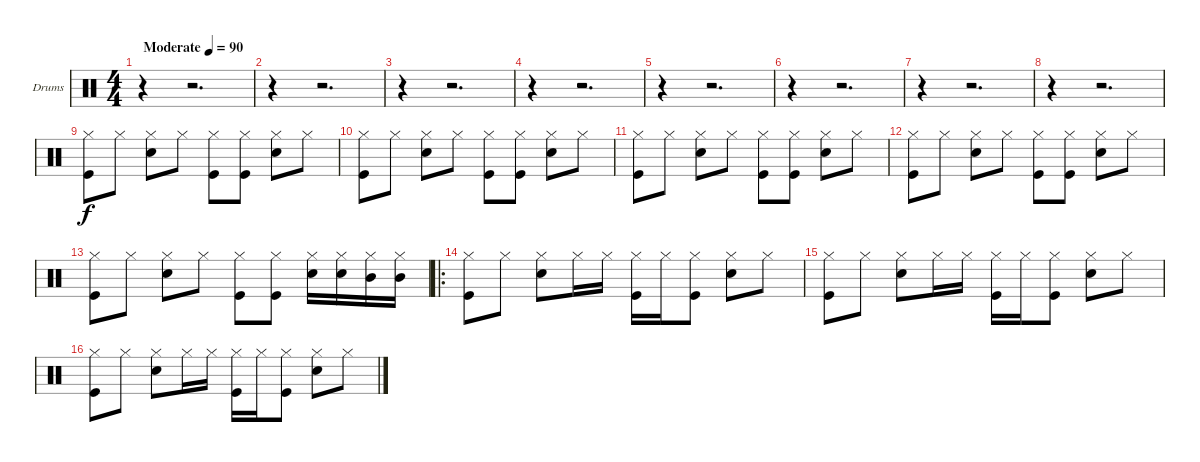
\bracketExtendMode groupsimilarinstruments
\firstSystemTrackNameOrientation horizontal
\otherSystemsTrackNameOrientation horizontal
\track ("Drumkit" "Drums") {instrument percussion}
\staff {score}
\articulation defaults
\ts (4 4)
\beaming (8 2 2 2 2)
\tempo (90 "Moderate")
\clef neutral
\ks c
r.4{dy f} r.2{d} |
r.4 r.2{d} |
r.4 r.2{d} |
r.4 r.2{d} |
r.4 r.2{d} |
r.4 r.2{d} |
r.4 r.2{d} |
r.4 r.2{d} |
("Hi-Hat (closed)" "Kick (hit)").8 "Hi-Hat (closed)".8 ("Hi-Hat (closed)" "Snare (hit) 2").8 "Hi-Hat (closed)".8 ("Hi-Hat (closed)" "Kick (hit)").8 ("Hi-Hat (closed)" "Kick (hit)").8 ("Hi-Hat (closed)" "Snare (hit) 2").8 "Hi-Hat (closed)".8 |
("Hi-Hat (closed)" "Kick (hit)").8 "Hi-Hat (closed)".8 ("Hi-Hat (closed)" "Snare (hit) 2").8 "Hi-Hat (closed)".8 ("Hi-Hat (closed)" "Kick (hit)").8 ("Hi-Hat (closed)" "Kick (hit)").8 ("Hi-Hat (closed)" "Snare (hit) 2").8 "Hi-Hat (closed)".8 |
("Hi-Hat (closed)" "Kick (hit)").8 "Hi-Hat (closed)".8 ("Hi-Hat (closed)" "Snare (hit) 2").8 "Hi-Hat (closed)".8 ("Hi-Hat (closed)" "Kick (hit)").8 ("Hi-Hat (closed)" "Kick (hit)").8 ("Hi-Hat (closed)" "Snare (hit) 2").8 "Hi-Hat (closed)".8 |
("Hi-Hat (closed)" "Kick (hit)").8 "Hi-Hat (closed)".8 ("Hi-Hat (closed)" "Snare (hit) 2").8 "Hi-Hat (closed)".8 ("Hi-Hat (closed)" "Kick (hit)").8 ("Hi-Hat (closed)" "Kick (hit)").8 ("Hi-Hat (closed)" "Snare (hit) 2").8 "Hi-Hat (closed)".8 |
("Hi-Hat (closed)" "Kick (hit)").8 "Hi-Hat (closed)".8 ("Hi-Hat (closed)" "Snare (hit) 2").8 "Hi-Hat (closed)".8 ("Hi-Hat (closed)" "Kick (hit)").8 ("Hi-Hat (closed)" "Kick (hit)").8 ("Hi-Hat (closed)" "Snare (hit) 2").16 ("Hi-Hat (closed)" "Snare (hit) 2").16 ("Hi-Hat (closed)" "Mid Tom (hit)").16 ("Hi-Hat (closed)" "Mid Tom (hit)").16 |
\ro
("Hi-Hat (closed)" "Kick (hit)").8 "Hi-Hat (closed)".8 ("Hi-Hat (closed)" "Snare (hit) 2").8 "Hi-Hat (closed)".16 "Hi-Hat (closed)".16 ("Hi-Hat (closed)" "Kick (hit)").16 "Hi-Hat (closed)".16 ("Hi-Hat (closed)" "Kick (hit)").8 ("Hi-Hat (closed)" "Snare (hit) 2").8 "Hi-Hat (closed)".8 |
("Hi-Hat (closed)" "Kick (hit)").8 "Hi-Hat (closed)".8 ("Hi-Hat (closed)" "Snare (hit) 2").8 "Hi-Hat (closed)".16 "Hi-Hat (closed)".16 ("Hi-Hat (closed)" "Kick (hit)").16 "Hi-Hat (closed)".16 ("Hi-Hat (closed)" "Kick (hit)").8 ("Hi-Hat (closed)" "Snare (hit) 2").8 "Hi-Hat (closed)".8 |
("Hi-Hat (closed)" "Kick (hit)").8 "Hi-Hat (closed)".8 ("Hi-Hat (closed)" "Snare (hit) 2").8 "Hi-Hat (closed)".16 "Hi-Hat (closed)".16 ("Hi-Hat (closed)" "Kick (hit)").16 "Hi-Hat (closed)".16 ("Hi-Hat (closed)" "Kick (hit)").8 ("Hi-Hat (closed)" "Snare (hit) 2").8 "Hi-Hat (closed)".8
